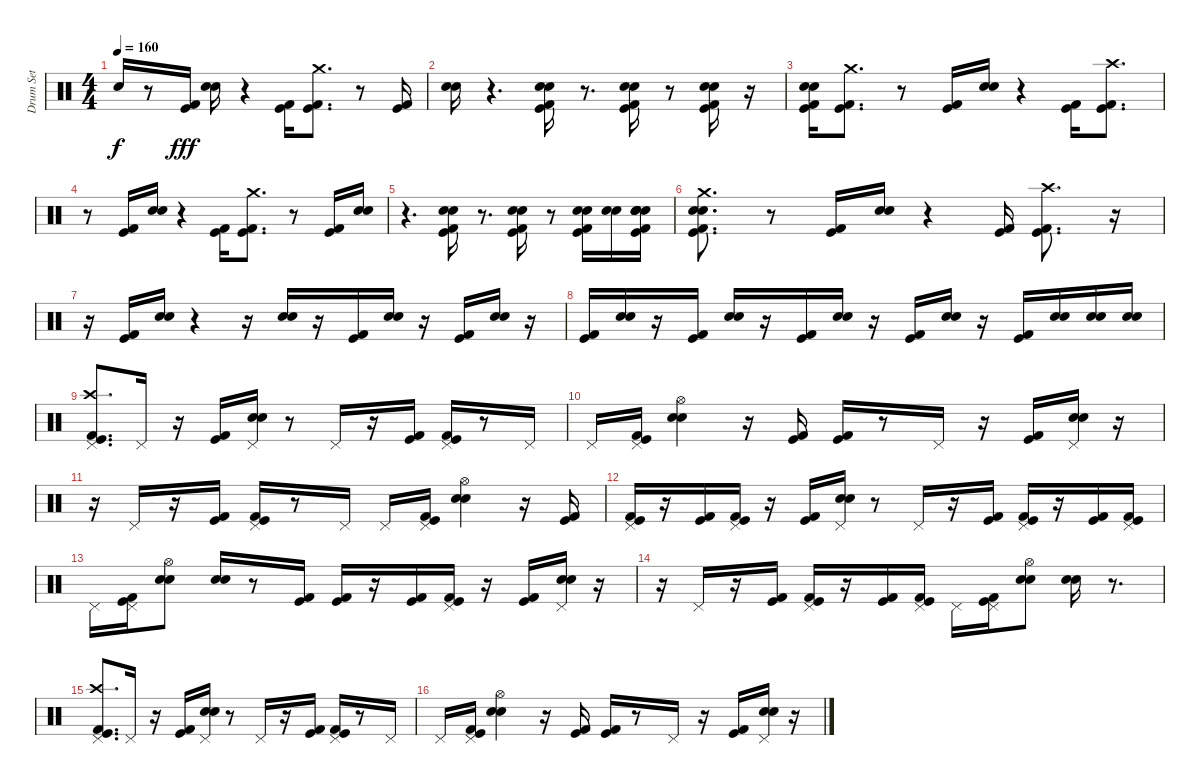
\track ("Drum Set" "Drum Set") {instrument percussion}
\staff {score}
\articulation defaults
\ts (4 4)
\tempo 160
\clef neutral
\ks c "Snare (hit)"{t}.16{dy f}
r.8 ("Kick (hit)" "Kick (hit) 2").16{dy fff} ("Snare (hit) 2" "Electric Snare (hit)").16 r.4 ("Kick (hit) 2" "Kick (hit)").16 ("Kick (hit)" "Kick (hit) 2" "Crash medium (hit)").8{d} r.8 ("Kick (hit) 2" "Kick (hit)").16 |
("Snare (hit) 2" "Electric Snare (hit)").16 r.4{d} ("Kick (hit) 2" "Kick (hit)" "Snare (hit) 2" "Electric Snare (hit)").16 r.8{d} ("Kick (hit)" "Kick (hit) 2" "Snare (hit) 2" "Electric Snare (hit)").16 r.8 ("Kick (hit)" "Kick (hit) 2" "Snare (hit) 2" "Electric Snare (hit)").16 r.16 |
("Electric Snare (hit)" "Snare (hit) 2" "Kick (hit) 2" "Kick (hit)").16 ("Kick (hit) 2" "Kick (hit)" "Crash medium (hit)").8{d} r.8 ("Kick (hit) 2" "Kick (hit)").16 ("Electric Snare (hit)" "Snare (hit) 2").16 r.4 ("Kick (hit) 2" "Kick (hit)").16 ("Kick (hit)" "Kick (hit) 2" "Crash high (hit)").8{d} |
r.8 ("Kick (hit)" "Kick (hit) 2").16 ("Snare (hit) 2" "Electric Snare (hit)").16 r.4 ("Kick (hit) 2" "Kick (hit)").16 ("Kick (hit)" "Kick (hit) 2" "Crash medium (hit)").8{d} r.8 ("Kick (hit) 2" "Kick (hit)").16 ("Snare (hit) 2" "Electric Snare (hit)").16 |
r.4{d} ("Kick (hit) 2" "Kick (hit)" "Snare (hit) 2" "Electric Snare (hit)").16 r.8{d} ("Kick (hit)" "Kick (hit) 2" "Snare (hit) 2" "Electric Snare (hit)").16 r.8 ("Kick (hit)" "Kick (hit) 2" "Snare (hit) 2" "Electric Snare (hit)").16 ("Electric Snare (hit)" "Snare (hit) 2").16 ("Kick (hit)" "Snare (hit) 2" "Kick (hit) 2" "Electric Snare (hit)" "Snare (hit) 2" "Electric Snare (hit)").16 |
("Snare (hit) 2" "Electric Snare (hit)" "Kick (hit) 2" "Kick (hit)" "Crash medium (hit)").8{d} r.8 ("Kick (hit) 2" "Kick (hit)").16 ("Electric Snare (hit)" "Snare (hit) 2").16 r.4 ("Kick (hit) 2" "Kick (hit)").16 ("Kick (hit)" "Kick (hit) 2" "Crash high (hit)").8{d} r.16 |
r.16 ("Kick (hit)" "Kick (hit) 2").16 ("Snare (hit) 2" "Electric Snare (hit)").16 r.4 r.16 ("Electric Snare (hit)" "Snare (hit) 2").16 r.16 ("Kick (hit) 2" "Kick (hit)").16 ("Snare (hit) 2" "Electric Snare (hit)").16 r.16 ("Kick (hit)" "Kick (hit) 2").16 ("Snare (hit) 2" "Electric Snare (hit)").16 r.16 |
("Kick (hit) 2" "Kick (hit)").16 ("Snare (hit) 2" "Electric Snare (hit)").16 r.16 ("Kick (hit) 2" "Kick (hit)").16 ("Snare (hit) 2" "Electric Snare (hit)").16 r.16 ("Kick (hit) 2" "Kick (hit)").16 ("Snare (hit) 2" "Electric Snare (hit)").16 r.16 ("Kick (hit)" "Kick (hit) 2").16 ("Snare (hit) 2" "Electric Snare (hit)").16 r.16 ("Kick (hit)" "Kick (hit) 2").16 ("Snare (hit) 2" "Electric Snare (hit)").16 ("Snare (hit) 2" "Electric Snare (hit)").16 ("Snare (hit) 2" "Electric Snare (hit)").16 |
("Crash high (hit)" "Kick (hit) 2" "Kick (hit)" "Pedal Hi-Hat (hit)").8{d} "Pedal Hi-Hat (hit)".16 r.16 ("Kick (hit) 2" "Kick (hit)").16 ("Electric Snare (hit)" "Snare (hit) 2" "Pedal Hi-Hat (hit)").16 r.8 "Pedal Hi-Hat (hit)".16 r.16 ("Kick (hit)" "Kick (hit) 2").16 ("Pedal Hi-Hat (hit)" "Kick (hit)" "Kick (hit) 2").16 r.8 "Pedal Hi-Hat (hit)".16 |
"Pedal Hi-Hat (hit)".16 ("Pedal Hi-Hat (hit)" "Kick (hit)" "Kick (hit) 2").16 ("Hi-Hat (open)" "Electric Snare (hit)" "Snare (hit) 2").4 r.16 ("Kick (hit)" "Kick (hit) 2").16 ("Kick (hit) 2" "Kick (hit)").16 r.8 "Pedal Hi-Hat (hit)".16 r.16 ("Kick (hit) 2" "Kick (hit)").16 ("Pedal Hi-Hat (hit)" "Electric Snare (hit)" "Snare (hit) 2").16 r.16 |
r.16 "Pedal Hi-Hat (hit)".16 r.16 ("Kick (hit)" "Kick (hit) 2").16 ("Pedal Hi-Hat (hit)" "Kick (hit)" "Kick (hit) 2").16 r.8 "Pedal Hi-Hat (hit)".16 "Pedal Hi-Hat (hit)".16 ("Pedal Hi-Hat (hit)" "Kick (hit)" "Kick (hit) 2").16 ("Hi-Hat (open)" "Electric Snare (hit)" "Snare (hit) 2").4 r.16 ("Kick (hit)" "Kick (hit) 2").16 |
("Kick (hit)" "Kick (hit) 2" "Pedal Hi-Hat (hit)").16 r.16 ("Kick (hit)" "Kick (hit) 2").16 ("Kick (hit)" "Kick (hit) 2" "Pedal Hi-Hat (hit)").16 r.16 ("Kick (hit)" "Kick (hit) 2").16 ("Electric Snare (hit)" "Snare (hit) 2" "Pedal Hi-Hat (hit)").16 r.8 "Pedal Hi-Hat (hit)".16 r.16 ("Kick (hit)" "Kick (hit) 2").16 ("Kick (hit)" "Kick (hit) 2" "Pedal Hi-Hat (hit)").16 r.16 ("Kick (hit)" "Kick (hit) 2").16 ("Kick (hit) 2" "Kick (hit)" "Pedal Hi-Hat (hit)").16 |
"Pedal Hi-Hat (hit)".16 ("Kick (hit)" "Kick (hit) 2" "Pedal Hi-Hat (hit)").16 ("Snare (hit) 2" "Electric Snare (hit)" "Hi-Hat (open)").8 ("Electric Snare (hit)" "Snare (hit) 2").16 r.8 ("Kick (hit)" "Kick (hit) 2").16 ("Kick (hit)" "Kick (hit) 2").16 r.16 ("Kick (hit)" "Kick (hit) 2").16 ("Pedal Hi-Hat (hit)" "Kick (hit)" "Kick (hit) 2").16 r.16 ("Kick (hit)" "Kick (hit) 2").16 ("Pedal Hi-Hat (hit)" "Electric Snare (hit)" "Snare (hit) 2").16 r.16 |
r.16 "Pedal Hi-Hat (hit)".16 r.16 ("Kick (hit)" "Kick (hit) 2").16 ("Pedal Hi-Hat (hit)" "Kick (hit)" "Kick (hit) 2").16 r.16 ("Kick (hit)" "Kick (hit) 2").16 ("Pedal Hi-Hat (hit)" "Kick (hit) 2" "Kick (hit)").16 "Pedal Hi-Hat (hit)".16 ("Pedal Hi-Hat (hit)" "Kick (hit)" "Kick (hit) 2").16 ("Hi-Hat (open)" "Snare (hit) 2" "Electric Snare (hit)").8 ("Electric Snare (hit)" "Snare (hit) 2").16 r.8{d} |
("Crash high (hit)" "Kick (hit) 2" "Kick (hit)" "Pedal Hi-Hat (hit)").8{d} "Pedal Hi-Hat (hit)".16 r.16 ("Kick (hit) 2" "Kick (hit)").16 ("Electric Snare (hit)" "Snare (hit) 2" "Pedal Hi-Hat (hit)").16 r.8 "Pedal Hi-Hat (hit)".16 r.16 ("Kick (hit)" "Kick (hit) 2").16 ("Kick (hit)" "Kick (hit) 2" "Pedal Hi-Hat (hit)").16 r.8 "Pedal Hi-Hat (hit)".16 |
"Pedal Hi-Hat (hit)".16 ("Kick (hit)" "Kick (hit) 2" "Pedal Hi-Hat (hit)").16 ("Electric Snare (hit)" "Snare (hit) 2" "Hi-Hat (open)").4 r.16 ("Kick (hit)" "Kick (hit) 2").16 ("Kick (hit) 2" "Kick (hit)").16 r.8 "Pedal Hi-Hat (hit)".16 r.16 ("Kick (hit) 2" "Kick (hit)").16 ("Pedal Hi-Hat (hit)" "Electric Snare (hit)" "Snare (hit) 2").16 r.16
